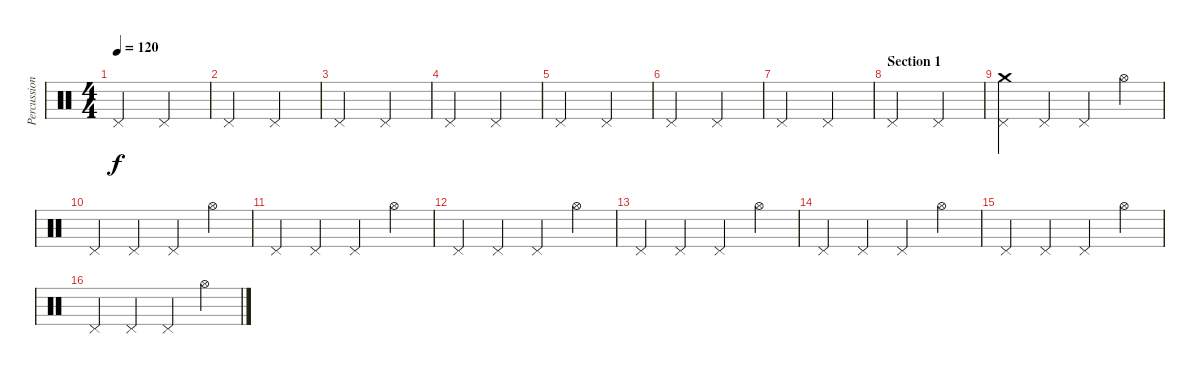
\track ("Percussions" "Percussion") {instrument percussion}
\staff {score}
\articulation defaults
\ts (4 4)
\tempo 120
\clef neutral
\ks c "Pedal Hi-Hat (hit)".2{dy f} "Pedal Hi-Hat (hit)".2
|
"Pedal Hi-Hat (hit)".2 "Pedal Hi-Hat (hit)".2 |
"Pedal Hi-Hat (hit)".2 "Pedal Hi-Hat (hit)".2 |
"Pedal Hi-Hat (hit)".2 "Pedal Hi-Hat (hit)".2 |
"Pedal Hi-Hat (hit)".2 "Pedal Hi-Hat (hit)".2 |
"Pedal Hi-Hat (hit)".2 "Pedal Hi-Hat (hit)".2 |
"Pedal Hi-Hat (hit)".2 "Pedal Hi-Hat (hit)".2 |
\section ("" "Section 1")
"Pedal Hi-Hat (hit)".2 "Pedal Hi-Hat (hit)".2 |
("Crash medium (hit)" "Pedal Hi-Hat (hit)").4 "Pedal Hi-Hat (hit)".4 "Pedal Hi-Hat (hit)".4 "Hi-Hat (open)".4 |
"Pedal Hi-Hat (hit)".4 "Pedal Hi-Hat (hit)".4 "Pedal Hi-Hat (hit)".4 "Hi-Hat (open)".4 |
"Pedal Hi-Hat (hit)".4 "Pedal Hi-Hat (hit)".4 "Pedal Hi-Hat (hit)".4 "Hi-Hat (open)".4 |
"Pedal Hi-Hat (hit)".4 "Pedal Hi-Hat (hit)".4 "Pedal Hi-Hat (hit)".4 "Hi-Hat (open)".4 |
"Pedal Hi-Hat (hit)".4 "Pedal Hi-Hat (hit)".4 "Pedal Hi-Hat (hit)".4 "Hi-Hat (open)".4 |
"Pedal Hi-Hat (hit)".4 "Pedal Hi-Hat (hit)".4 "Pedal Hi-Hat (hit)".4 "Hi-Hat (open)".4 |
"Pedal Hi-Hat (hit)".4 "Pedal Hi-Hat (hit)".4 "Pedal Hi-Hat (hit)".4 "Hi-Hat (open)".4 |
"Pedal Hi-Hat (hit)".4 "Pedal Hi-Hat (hit)".4 "Pedal Hi-Hat (hit)".4 "Hi-Hat (open)".4
